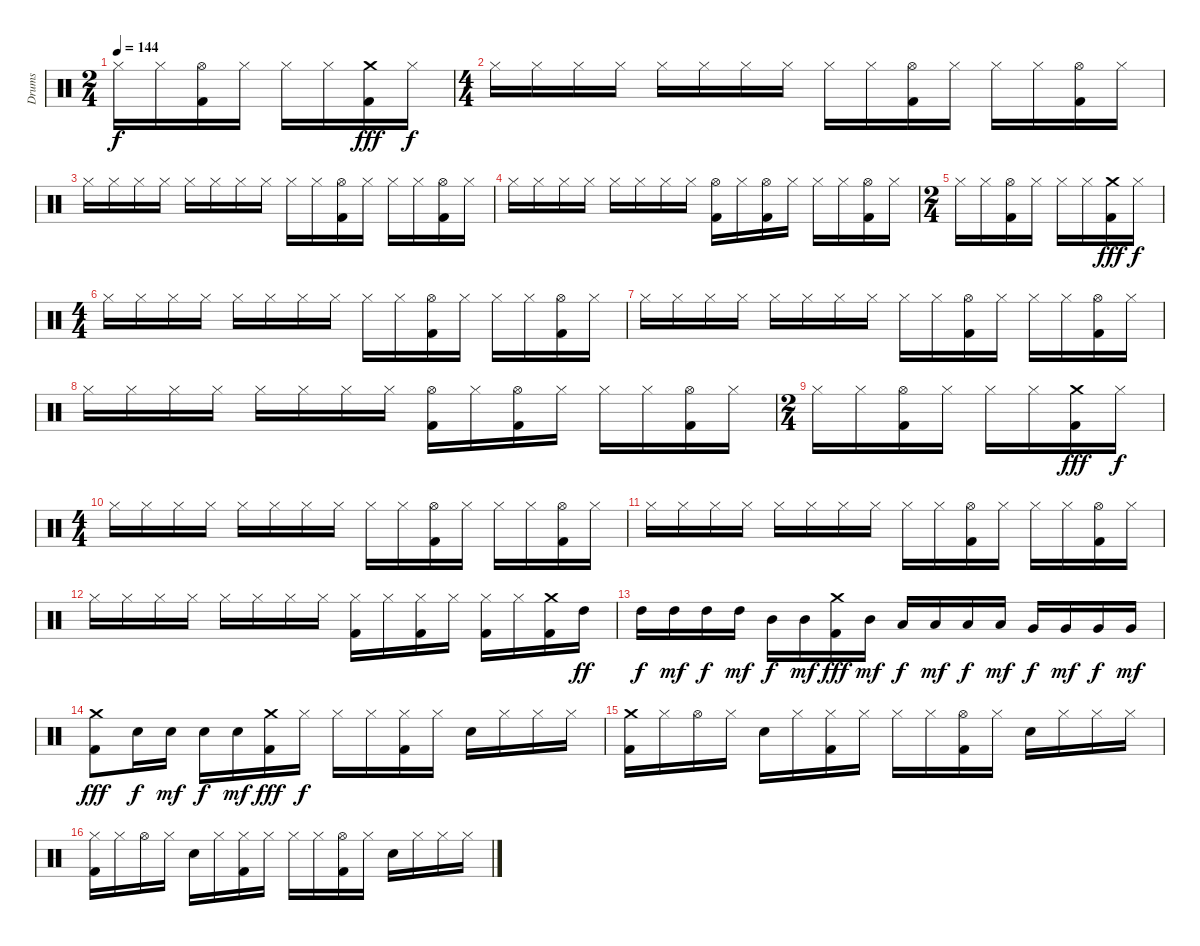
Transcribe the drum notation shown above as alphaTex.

\bracketExtendMode groupsimilarinstruments
\otherSystemsTrackNameOrientation horizontal
\track ("Drumkit" "Drums") {instrument percussion}
\staff {score}
\articulation defaults
\ts (2 4)
\tempo 144
\clef neutral
\ks c "Hi-Hat (closed)".16{dy f beam Down} "Hi-Hat (closed)".16{beam Down}
("Hi-Hat (open)" "Kick (hit) 2").16{beam Down} "Hi-Hat (closed)".16{beam Down} "Hi-Hat (closed)".16{beam Down} "Hi-Hat (closed)".16{beam Down} ("Crash medium (hit)" "Kick (hit) 2").16{dy fff beam Down} "Hi-Hat (closed)".16{dy f beam Down} |
\ts (4 4)
"Hi-Hat (closed)".16{beam Down} "Hi-Hat (closed)".16{beam Down} "Hi-Hat (closed)".16{beam Down} "Hi-Hat (closed)".16{beam Down} "Hi-Hat (closed)".16{beam Down} "Hi-Hat (closed)".16{beam Down} "Hi-Hat (closed)".16{beam Down} "Hi-Hat (closed)".16{beam Down} "Hi-Hat (closed)".16{beam Down} "Hi-Hat (closed)".16{beam Down} ("Hi-Hat (open)" "Kick (hit) 2").16{beam Down} "Hi-Hat (closed)".16{beam Down} "Hi-Hat (closed)".16{beam Down} "Hi-Hat (closed)".16{beam Down} ("Hi-Hat (open)" "Kick (hit) 2").16{beam Down} "Hi-Hat (closed)".16{beam Down} |
"Hi-Hat (closed)".16{beam Down} "Hi-Hat (closed)".16{beam Down} "Hi-Hat (closed)".16{beam Down} "Hi-Hat (closed)".16{beam Down} "Hi-Hat (closed)".16{beam Down} "Hi-Hat (closed)".16{beam Down} "Hi-Hat (closed)".16{beam Down} "Hi-Hat (closed)".16{beam Down} "Hi-Hat (closed)".16{beam Down} "Hi-Hat (closed)".16{beam Down} ("Hi-Hat (open)" "Kick (hit) 2").16{beam Down} "Hi-Hat (closed)".16{beam Down} "Hi-Hat (closed)".16{beam Down} "Hi-Hat (closed)".16{beam Down} ("Hi-Hat (open)" "Kick (hit) 2").16{beam Down} "Hi-Hat (closed)".16{beam Down} |
"Hi-Hat (closed)".16{beam Down} "Hi-Hat (closed)".16{beam Down} "Hi-Hat (closed)".16{beam Down} "Hi-Hat (closed)".16{beam Down} "Hi-Hat (closed)".16{beam Down} "Hi-Hat (closed)".16{beam Down} "Hi-Hat (closed)".16{beam Down} "Hi-Hat (closed)".16{beam Down} ("Hi-Hat (open)" "Kick (hit) 2").16{beam Down} "Hi-Hat (closed)".16{beam Down} ("Hi-Hat (open)" "Kick (hit) 2").16{beam Down} "Hi-Hat (closed)".16{beam Down} "Hi-Hat (closed)".16{beam Down} "Hi-Hat (closed)".16{beam Down} ("Hi-Hat (open)" "Kick (hit) 2").16{beam Down} "Hi-Hat (closed)".16{beam Down} |
\ts (2 4)
"Hi-Hat (closed)".16{beam Down} "Hi-Hat (closed)".16{beam Down} ("Hi-Hat (open)" "Kick (hit) 2").16{beam Down} "Hi-Hat (closed)".16{beam Down} "Hi-Hat (closed)".16{beam Down} "Hi-Hat (closed)".16{beam Down} ("Crash medium (hit)" "Kick (hit) 2").16{dy fff beam Down} "Hi-Hat (closed)".16{dy f beam Down} |
\ts (4 4)
"Hi-Hat (closed)".16{beam Down} "Hi-Hat (closed)".16{beam Down} "Hi-Hat (closed)".16{beam Down} "Hi-Hat (closed)".16{beam Down} "Hi-Hat (closed)".16{beam Down} "Hi-Hat (closed)".16{beam Down} "Hi-Hat (closed)".16{beam Down} "Hi-Hat (closed)".16{beam Down} "Hi-Hat (closed)".16{beam Down} "Hi-Hat (closed)".16{beam Down} ("Hi-Hat (open)" "Kick (hit) 2").16{beam Down} "Hi-Hat (closed)".16{beam Down} "Hi-Hat (closed)".16{beam Down} "Hi-Hat (closed)".16{beam Down} ("Hi-Hat (open)" "Kick (hit) 2").16{beam Down} "Hi-Hat (closed)".16{beam Down} |
"Hi-Hat (closed)".16{beam Down} "Hi-Hat (closed)".16{beam Down} "Hi-Hat (closed)".16{beam Down} "Hi-Hat (closed)".16{beam Down} "Hi-Hat (closed)".16{beam Down} "Hi-Hat (closed)".16{beam Down} "Hi-Hat (closed)".16{beam Down} "Hi-Hat (closed)".16{beam Down} "Hi-Hat (closed)".16{beam Down} "Hi-Hat (closed)".16{beam Down} ("Hi-Hat (open)" "Kick (hit) 2").16{beam Down} "Hi-Hat (closed)".16{beam Down} "Hi-Hat (closed)".16{beam Down} "Hi-Hat (closed)".16{beam Down} ("Hi-Hat (open)" "Kick (hit) 2").16{beam Down} "Hi-Hat (closed)".16{beam Down} |
"Hi-Hat (closed)".16{beam Down} "Hi-Hat (closed)".16{beam Down} "Hi-Hat (closed)".16{beam Down} "Hi-Hat (closed)".16{beam Down} "Hi-Hat (closed)".16{beam Down} "Hi-Hat (closed)".16{beam Down} "Hi-Hat (closed)".16{beam Down} "Hi-Hat (closed)".16{beam Down} ("Hi-Hat (open)" "Kick (hit) 2").16{beam Down} "Hi-Hat (closed)".16{beam Down} ("Hi-Hat (open)" "Kick (hit) 2").16{beam Down} "Hi-Hat (closed)".16{beam Down} "Hi-Hat (closed)".16{beam Down} "Hi-Hat (closed)".16{beam Down} ("Hi-Hat (open)" "Kick (hit) 2").16{beam Down} "Hi-Hat (closed)".16{beam Down} |
\ts (2 4)
"Hi-Hat (closed)".16{beam Down} "Hi-Hat (closed)".16{beam Down} ("Hi-Hat (open)" "Kick (hit) 2").16{beam Down} "Hi-Hat (closed)".16{beam Down} "Hi-Hat (closed)".16{beam Down} "Hi-Hat (closed)".16{beam Down} ("Crash medium (hit)" "Kick (hit) 2").16{dy fff beam Down} "Hi-Hat (closed)".16{dy f beam Down} |
\ts (4 4)
"Hi-Hat (closed)".16{beam Down} "Hi-Hat (closed)".16{beam Down} "Hi-Hat (closed)".16{beam Down} "Hi-Hat (closed)".16{beam Down} "Hi-Hat (closed)".16{beam Down} "Hi-Hat (closed)".16{beam Down} "Hi-Hat (closed)".16{beam Down} "Hi-Hat (closed)".16{beam Down} "Hi-Hat (closed)".16{beam Down} "Hi-Hat (closed)".16{beam Down} ("Hi-Hat (open)" "Kick (hit) 2").16{beam Down} "Hi-Hat (closed)".16{beam Down} "Hi-Hat (closed)".16{beam Down} "Hi-Hat (closed)".16{beam Down} ("Hi-Hat (open)" "Kick (hit) 2").16{beam Down} "Hi-Hat (closed)".16{beam Down} |
"Hi-Hat (closed)".16{beam Down} "Hi-Hat (closed)".16{beam Down} "Hi-Hat (closed)".16{beam Down} "Hi-Hat (closed)".16{beam Down} "Hi-Hat (closed)".16{beam Down} "Hi-Hat (closed)".16{beam Down} "Hi-Hat (closed)".16{beam Down} "Hi-Hat (closed)".16{beam Down} "Hi-Hat (closed)".16{beam Down} "Hi-Hat (closed)".16{beam Down} ("Hi-Hat (open)" "Kick (hit) 2").16{beam Down} "Hi-Hat (closed)".16{beam Down} "Hi-Hat (closed)".16{beam Down} "Hi-Hat (closed)".16{beam Down} ("Hi-Hat (open)" "Kick (hit) 2").16{beam Down} "Hi-Hat (closed)".16{beam Down} |
"Hi-Hat (closed)".16{beam Down} "Hi-Hat (closed)".16{beam Down} "Hi-Hat (closed)".16{beam Down} "Hi-Hat (closed)".16{beam Down} "Hi-Hat (closed)".16{beam Down} "Hi-Hat (closed)".16{beam Down} "Hi-Hat (closed)".16{beam Down} "Hi-Hat (closed)".16{beam Down} ("Hi-Hat (closed)" "Kick (hit) 2").16{beam Down} "Hi-Hat (closed)".16{beam Down} ("Hi-Hat (closed)" "Kick (hit) 2").16{beam Down} "Hi-Hat (closed)".16{beam Down} ("Hi-Hat (closed)" "Kick (hit) 2").16{beam Down} "Hi-Hat (closed)".16{beam Down} ("Crash medium (hit)" "Kick (hit) 2").16{beam Down} "High Tom (hit)".16{dy ff beam Down} |
"High Tom (hit)".16{dy f beam Down} "High Tom (hit)".16{dy mf beam Down} "High Tom (hit)".16{dy f beam Down} "High Tom (hit)".16{dy mf beam Down} "Mid Tom (hit)".16{dy f beam Down} "Mid Tom (hit)".16{dy mf beam Down} ("Crash medium (hit)" "Kick (hit) 2").16{dy fff beam Down} "Mid Tom (hit)".16{dy mf beam Down} "Low Tom (hit)".16{dy f beam Up} "Low Tom (hit)".16{dy mf beam Up} "Low Tom (hit)".16{dy f beam Up} "Low Tom (hit)".16{dy mf beam Up} "Very Low Tom (hit)".16{dy f beam Up} "Very Low Tom (hit)".16{dy mf beam Up} "Very Low Tom (hit)".16{dy f beam Up} "Very Low Tom (hit)".16{dy mf beam Up} |
("Crash medium (hit)" "Kick (hit) 2").8{dy fff beam Down} "Snare (hit) 2".16{dy f beam Down} "Snare (hit) 2".16{dy mf beam Down} "Snare (hit) 2".16{dy f beam Down} "Snare (hit) 2".16{dy mf beam Down} ("Crash medium (hit)" "Kick (hit) 2").16{dy fff beam Down} "Hi-Hat (closed)".16{dy f beam Down} "Hi-Hat (closed)".16{beam Down} "Hi-Hat (closed)".16{beam Down} ("Hi-Hat (closed)" "Kick (hit) 2").16{beam Down} "Hi-Hat (closed)".16{beam Down} "Snare (hit) 2".16{beam Down} "Hi-Hat (closed)".16{beam Down} "Hi-Hat (closed)".16{beam Down} "Hi-Hat (closed)".16{beam Down} |
("Crash medium (hit)" "Kick (hit) 2").16{beam Down} "Hi-Hat (closed)".16{beam Down} "Hi-Hat (open)".16{beam Down} "Hi-Hat (closed)".16{beam Down} "Snare (hit) 2".16{beam Down} "Hi-Hat (closed)".16{beam Down} ("Hi-Hat (closed)" "Kick (hit) 2").16{beam Down} "Hi-Hat (closed)".16{beam Down} "Hi-Hat (closed)".16{beam Down} "Hi-Hat (closed)".16{beam Down} ("Hi-Hat (open)" "Kick (hit) 2").16{beam Down} "Hi-Hat (closed)".16{beam Down} "Snare (hit) 2".16{beam Down} "Hi-Hat (closed)".16{beam Down} "Hi-Hat (closed)".16{beam Down} "Hi-Hat (closed)".16{beam Down} |
("Hi-Hat (closed)" "Kick (hit) 2").16{beam Down} "Hi-Hat (closed)".16{beam Down} "Hi-Hat (open)".16{beam Down} "Hi-Hat (closed)".16{beam Down} "Snare (hit) 2".16{beam Down} "Hi-Hat (closed)".16{beam Down} ("Hi-Hat (closed)" "Kick (hit) 2").16{beam Down} "Hi-Hat (closed)".16{beam Down} "Hi-Hat (closed)".16{beam Down} "Hi-Hat (closed)".16{beam Down} ("Hi-Hat (open)" "Kick (hit) 2").16{beam Down} "Hi-Hat (closed)".16{beam Down} "Snare (hit) 2".16{beam Down} "Hi-Hat (closed)".16{beam Down} "Hi-Hat (closed)".16{beam Down} "Hi-Hat (closed)".16{beam Down}
